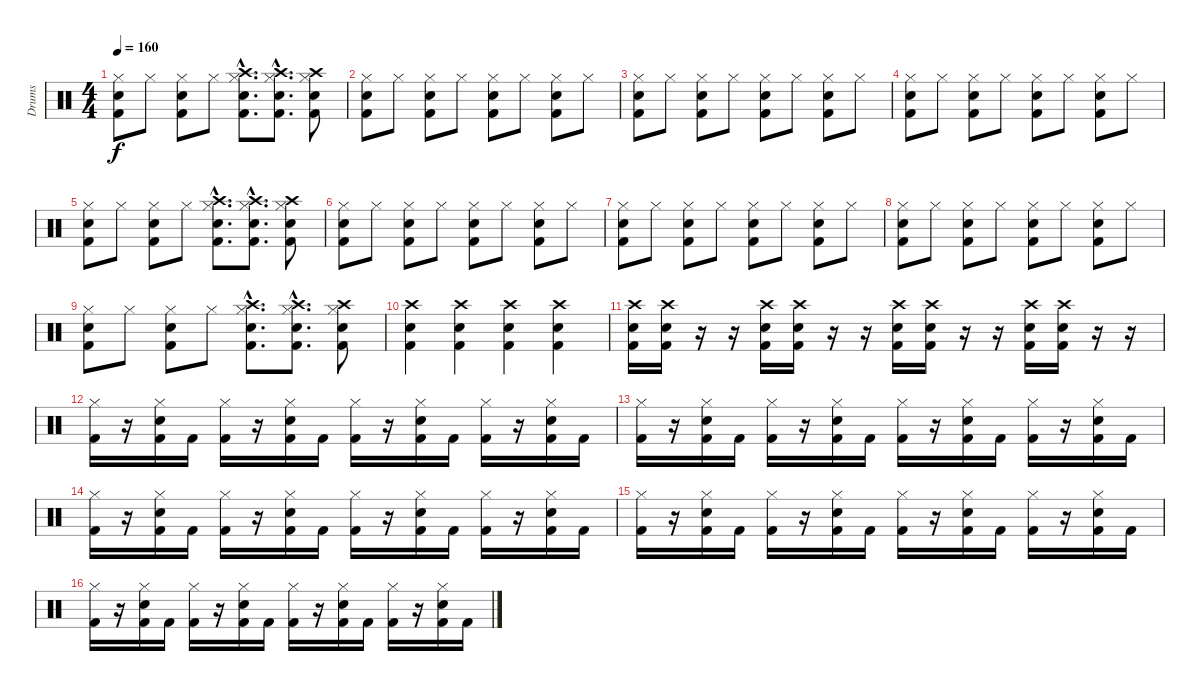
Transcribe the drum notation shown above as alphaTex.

\track ("Drums" "Drums") {instrument percussion}
\staff {score}
\articulation defaults
\ts (4 4)
\tempo 160
\clef neutral
\ks c
("Hi-Hat (closed)" "Kick (hit) 2" "Electric Snare (hit)").8{dy f} "Hi-Hat (closed)".8 ("Hi-Hat (closed)" "Kick (hit) 2" "Electric Snare (hit)").8 "Hi-Hat (closed)".8 ("Hi-Hat (closed)"{hac} "Kick (hit) 2"{hac} "Electric Snare (hit)"{hac} "Crash high (hit)"{hac}).8{d} ("Hi-Hat (closed)"{hac} "Kick (hit) 2"{hac} "Electric Snare (hit)"{hac} "Crash high (hit)"{hac}).8{d} ("Kick (hit) 2" "Hi-Hat (closed)" "Electric Snare (hit)" "Crash high (hit)").8 |
("Hi-Hat (closed)" "Kick (hit) 2" "Electric Snare (hit)").8 "Hi-Hat (closed)".8 ("Hi-Hat (closed)" "Kick (hit) 2" "Electric Snare (hit)").8 "Hi-Hat (closed)".8 ("Hi-Hat (closed)" "Kick (hit) 2" "Electric Snare (hit)").8 "Hi-Hat (closed)".8 ("Hi-Hat (closed)" "Kick (hit) 2" "Electric Snare (hit)").8 "Hi-Hat (closed)".8 |
("Hi-Hat (closed)" "Kick (hit) 2" "Electric Snare (hit)").8 "Hi-Hat (closed)".8 ("Hi-Hat (closed)" "Kick (hit) 2" "Electric Snare (hit)").8 "Hi-Hat (closed)".8 ("Hi-Hat (closed)" "Kick (hit) 2" "Electric Snare (hit)").8 "Hi-Hat (closed)".8 ("Hi-Hat (closed)" "Kick (hit) 2" "Electric Snare (hit)").8 "Hi-Hat (closed)".8 |
("Hi-Hat (closed)" "Kick (hit) 2" "Electric Snare (hit)").8 "Hi-Hat (closed)".8 ("Hi-Hat (closed)" "Kick (hit) 2" "Electric Snare (hit)").8 "Hi-Hat (closed)".8 ("Hi-Hat (closed)" "Kick (hit) 2" "Electric Snare (hit)").8 "Hi-Hat (closed)".8 ("Hi-Hat (closed)" "Kick (hit) 2" "Electric Snare (hit)").8 "Hi-Hat (closed)".8 |
("Hi-Hat (closed)" "Kick (hit) 2" "Electric Snare (hit)").8 "Hi-Hat (closed)".8 ("Hi-Hat (closed)" "Kick (hit) 2" "Electric Snare (hit)").8 "Hi-Hat (closed)".8 ("Hi-Hat (closed)"{hac} "Kick (hit) 2"{hac} "Electric Snare (hit)"{hac} "Crash high (hit)"{hac}).8{d} ("Hi-Hat (closed)"{hac} "Kick (hit) 2"{hac} "Electric Snare (hit)"{hac} "Crash high (hit)"{hac}).8{d} ("Kick (hit) 2" "Hi-Hat (closed)" "Electric Snare (hit)" "Crash high (hit)").8 |
("Hi-Hat (closed)" "Kick (hit) 2" "Electric Snare (hit)").8 "Hi-Hat (closed)".8 ("Hi-Hat (closed)" "Kick (hit) 2" "Electric Snare (hit)").8 "Hi-Hat (closed)".8 ("Hi-Hat (closed)" "Kick (hit) 2" "Electric Snare (hit)").8 "Hi-Hat (closed)".8 ("Hi-Hat (closed)" "Kick (hit) 2" "Electric Snare (hit)").8 "Hi-Hat (closed)".8 |
("Hi-Hat (closed)" "Kick (hit) 2" "Electric Snare (hit)").8 "Hi-Hat (closed)".8 ("Hi-Hat (closed)" "Kick (hit) 2" "Electric Snare (hit)").8 "Hi-Hat (closed)".8 ("Hi-Hat (closed)" "Kick (hit) 2" "Electric Snare (hit)").8 "Hi-Hat (closed)".8 ("Hi-Hat (closed)" "Kick (hit) 2" "Electric Snare (hit)").8 "Hi-Hat (closed)".8 |
("Hi-Hat (closed)" "Kick (hit) 2" "Electric Snare (hit)").8 "Hi-Hat (closed)".8 ("Hi-Hat (closed)" "Kick (hit) 2" "Electric Snare (hit)").8 "Hi-Hat (closed)".8 ("Hi-Hat (closed)" "Kick (hit) 2" "Electric Snare (hit)").8 "Hi-Hat (closed)".8 ("Hi-Hat (closed)" "Kick (hit) 2" "Electric Snare (hit)").8 "Hi-Hat (closed)".8 |
("Hi-Hat (closed)" "Kick (hit) 2" "Electric Snare (hit)").8 "Hi-Hat (closed)".8 ("Hi-Hat (closed)" "Kick (hit) 2" "Electric Snare (hit)").8 "Hi-Hat (closed)".8 ("Hi-Hat (closed)"{hac} "Kick (hit) 2"{hac} "Electric Snare (hit)"{hac} "Crash high (hit)"{hac}).8{d} ("Hi-Hat (closed)"{hac} "Kick (hit) 2"{hac} "Electric Snare (hit)"{hac} "Crash high (hit)"{hac}).8{d} ("Kick (hit) 2" "Hi-Hat (closed)" "Electric Snare (hit)" "Crash high (hit)").8 |
("Electric Snare (hit)" "Kick (hit) 2" "Crash high (hit)").4 ("Electric Snare (hit)" "Kick (hit) 2" "Crash high (hit)").4 ("Electric Snare (hit)" "Kick (hit) 2" "Crash high (hit)").4 ("Electric Snare (hit)" "Kick (hit) 2" "Crash high (hit)").4 |
("Kick (hit) 2" "Electric Snare (hit)" "Crash high (hit)").16 ("Kick (hit) 2" "Electric Snare (hit)" "Crash high (hit)").16 r.16 r.16 ("Kick (hit) 2" "Electric Snare (hit)" "Crash high (hit)").16 ("Kick (hit) 2" "Electric Snare (hit)" "Crash high (hit)").16 r.16 r.16 ("Kick (hit) 2" "Electric Snare (hit)" "Crash high (hit)").16 ("Kick (hit) 2" "Electric Snare (hit)" "Crash high (hit)").16 r.16 r.16 ("Kick (hit) 2" "Electric Snare (hit)" "Crash high (hit)").16 ("Kick (hit) 2" "Electric Snare (hit)" "Crash high (hit)").16 r.16 r.16 |
("Kick (hit) 2" "Hi-Hat (closed)").16 r.16 ("Kick (hit) 2" "Hi-Hat (closed)" "Electric Snare (hit)").16 "Kick (hit) 2".16 ("Kick (hit) 2" "Hi-Hat (closed)").16 r.16 ("Kick (hit) 2" "Hi-Hat (closed)" "Electric Snare (hit)").16 "Kick (hit) 2".16 ("Kick (hit) 2" "Hi-Hat (closed)").16 r.16 ("Kick (hit) 2" "Hi-Hat (closed)" "Electric Snare (hit)").16 "Kick (hit) 2".16 ("Kick (hit) 2" "Hi-Hat (closed)").16 r.16 ("Kick (hit) 2" "Hi-Hat (closed)" "Electric Snare (hit)").16 "Kick (hit) 2".16 |
("Kick (hit) 2" "Hi-Hat (closed)").16 r.16 ("Kick (hit) 2" "Hi-Hat (closed)" "Electric Snare (hit)").16 "Kick (hit) 2".16 ("Kick (hit) 2" "Hi-Hat (closed)").16 r.16 ("Kick (hit) 2" "Hi-Hat (closed)" "Electric Snare (hit)").16 "Kick (hit) 2".16 ("Kick (hit) 2" "Hi-Hat (closed)").16 r.16 ("Kick (hit) 2" "Hi-Hat (closed)" "Electric Snare (hit)").16 "Kick (hit) 2".16 ("Kick (hit) 2" "Hi-Hat (closed)").16 r.16 ("Kick (hit) 2" "Hi-Hat (closed)" "Electric Snare (hit)").16 "Kick (hit) 2".16 |
("Kick (hit) 2" "Hi-Hat (closed)").16 r.16 ("Kick (hit) 2" "Hi-Hat (closed)" "Electric Snare (hit)").16 "Kick (hit) 2".16 ("Kick (hit) 2" "Hi-Hat (closed)").16 r.16 ("Kick (hit) 2" "Hi-Hat (closed)" "Electric Snare (hit)").16 "Kick (hit) 2".16 ("Kick (hit) 2" "Hi-Hat (closed)").16 r.16 ("Kick (hit) 2" "Hi-Hat (closed)" "Electric Snare (hit)").16 "Kick (hit) 2".16 ("Kick (hit) 2" "Hi-Hat (closed)").16 r.16 ("Kick (hit) 2" "Hi-Hat (closed)" "Electric Snare (hit)").16 "Kick (hit) 2".16 |
("Kick (hit) 2" "Hi-Hat (closed)").16 r.16 ("Kick (hit) 2" "Hi-Hat (closed)" "Electric Snare (hit)").16 "Kick (hit) 2".16 ("Kick (hit) 2" "Hi-Hat (closed)").16 r.16 ("Kick (hit) 2" "Hi-Hat (closed)" "Electric Snare (hit)").16 "Kick (hit) 2".16 ("Kick (hit) 2" "Hi-Hat (closed)").16 r.16 ("Kick (hit) 2" "Hi-Hat (closed)" "Electric Snare (hit)").16 "Kick (hit) 2".16 ("Kick (hit) 2" "Hi-Hat (closed)").16 r.16 ("Kick (hit) 2" "Hi-Hat (closed)" "Electric Snare (hit)").16 "Kick (hit) 2".16 |
("Kick (hit) 2" "Hi-Hat (closed)").16 r.16 ("Kick (hit) 2" "Hi-Hat (closed)" "Electric Snare (hit)").16 "Kick (hit) 2".16 ("Kick (hit) 2" "Hi-Hat (closed)").16 r.16 ("Kick (hit) 2" "Hi-Hat (closed)" "Electric Snare (hit)").16 "Kick (hit) 2".16 ("Kick (hit) 2" "Hi-Hat (closed)").16 r.16 ("Kick (hit) 2" "Hi-Hat (closed)" "Electric Snare (hit)").16 "Kick (hit) 2".16 ("Kick (hit) 2" "Hi-Hat (closed)").16 r.16 ("Kick (hit) 2" "Hi-Hat (closed)" "Electric Snare (hit)").16 "Kick (hit) 2".16
